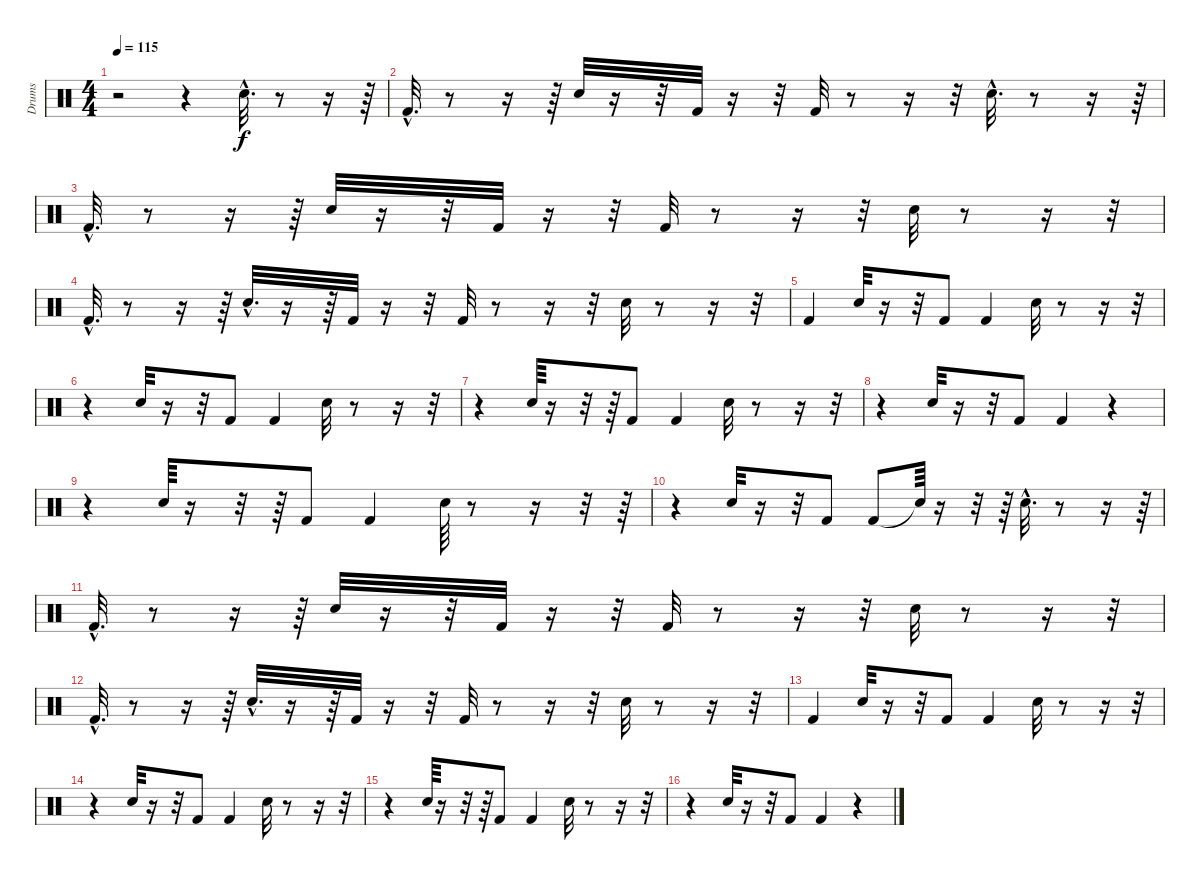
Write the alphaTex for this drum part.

\track ("Drums               " "Drums     ") {instrument percussion}
\staff {score}
\articulation defaults
\ts (4 4)
\tempo 115
\clef neutral
\ks c
r.2{dy f} r.4 "Snare (hit) 2"{hac}.32{d} r.8 r.16 r.64 |
"Kick (hit) 2"{hac}.32{d} r.8 r.16 r.64 "Snare (hit) 2".32 r.16 r.32 "Kick (hit) 2".32 r.16 r.32 "Kick (hit) 2".32 r.8 r.16 r.32 "Snare (hit) 2"{hac}.32{d} r.8 r.16 r.64 |
"Kick (hit) 2"{hac}.32{d} r.8 r.16 r.64 "Snare (hit) 2".32 r.16 r.32 "Kick (hit) 2".32 r.16 r.32 "Kick (hit) 2".32 r.8 r.16 r.32 "Snare (hit) 2".32 r.8 r.16 r.32 |
"Kick (hit) 2"{hac}.32{d} r.8 r.16 r.64 "Snare (hit) 2"{hac}.32{d} r.16 r.64 "Kick (hit) 2".32 r.16 r.32 "Kick (hit) 2".32 r.8 r.16 r.32 "Snare (hit) 2".32 r.8 r.16 r.32 |
"Kick (hit) 2".4 "Snare (hit) 2".32 r.16 r.32 "Kick (hit) 2".8 "Kick (hit) 2".4 "Snare (hit) 2".32 r.8 r.16 r.32 |
r.4 "Snare (hit) 2".32 r.16 r.32 "Kick (hit) 2".8 "Kick (hit) 2".4 "Snare (hit) 2".32 r.8 r.16 r.32 |
r.4 "Snare (hit) 2".64 r.16 r.32 r.64 "Kick (hit) 2".8 "Kick (hit) 2".4 "Snare (hit) 2".32 r.8 r.16 r.32 |
r.4 "Snare (hit) 2".32 r.16 r.32 "Kick (hit) 2".8 "Kick (hit) 2".4 r.4 |
r.4 "Snare (hit) 2".64 r.16 r.32 r.64 "Kick (hit) 2".8 "Kick (hit) 2".4 "Snare (hit) 2".64 r.8 r.16 r.32 r.64 |
r.4 "Snare (hit) 2".32 r.16 r.32 "Kick (hit) 2".8 "Kick (hit) 2".8 "Snare (hit)"{t}.64 r.16 r.32 r.64 "Snare (hit) 2"{hac}.32{d} r.8 r.16 r.64 |
"Kick (hit) 2"{hac}.32{d} r.8 r.16 r.64 "Snare (hit) 2".32 r.16 r.32 "Kick (hit) 2".32 r.16 r.32 "Kick (hit) 2".32 r.8 r.16 r.32 "Snare (hit) 2".32 r.8 r.16 r.32 |
"Kick (hit) 2"{hac}.32{d} r.8 r.16 r.64 "Snare (hit) 2"{hac}.32{d} r.16 r.64 "Kick (hit) 2".32 r.16 r.32 "Kick (hit) 2".32 r.8 r.16 r.32 "Snare (hit) 2".32 r.8 r.16 r.32 |
"Kick (hit) 2".4 "Snare (hit) 2".32 r.16 r.32 "Kick (hit) 2".8 "Kick (hit) 2".4 "Snare (hit) 2".32 r.8 r.16 r.32 |
r.4 "Snare (hit) 2".32 r.16 r.32 "Kick (hit) 2".8 "Kick (hit) 2".4 "Snare (hit) 2".32 r.8 r.16 r.32 |
r.4 "Snare (hit) 2".64 r.16 r.32 r.64 "Kick (hit) 2".8 "Kick (hit) 2".4 "Snare (hit) 2".32 r.8 r.16 r.32 |
r.4 "Snare (hit) 2".32 r.16 r.32 "Kick (hit) 2".8 "Kick (hit) 2".4 r.4
